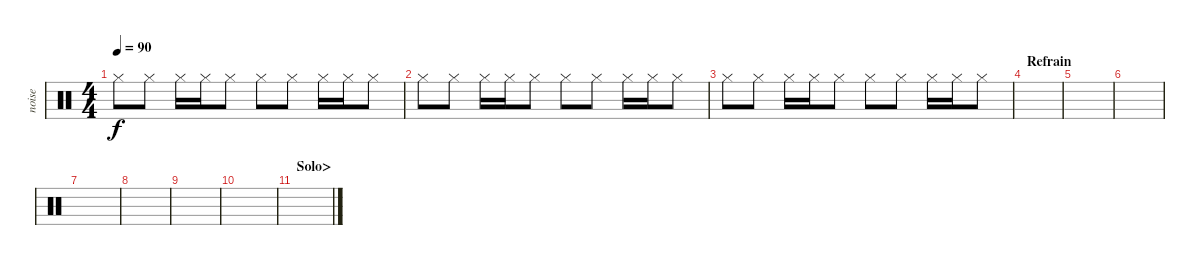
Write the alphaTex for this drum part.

\track ("noise" "noise") {instrument percussion}
\staff {score}
\articulation defaults
\ts (4 4)
\tempo 90
\clef neutral
\ks c "Hi-Hat (closed)".8{dy f} "Hi-Hat (closed)".8 "Hi-Hat (closed)".16 "Hi-Hat (closed)".16 "Hi-Hat (closed)".8 "Hi-Hat (closed)".8 "Hi-Hat (closed)".8 "Hi-Hat (closed)".16 "Hi-Hat (closed)".16 "Hi-Hat (closed)".8
|
"Hi-Hat (closed)".8 "Hi-Hat (closed)".8 "Hi-Hat (closed)".16 "Hi-Hat (closed)".16 "Hi-Hat (closed)".8 "Hi-Hat (closed)".8 "Hi-Hat (closed)".8 "Hi-Hat (closed)".16 "Hi-Hat (closed)".16 "Hi-Hat (closed)".8 |
"Hi-Hat (closed)".8 "Hi-Hat (closed)".8 "Hi-Hat (closed)".16 "Hi-Hat (closed)".16 "Hi-Hat (closed)".8 "Hi-Hat (closed)".8 "Hi-Hat (closed)".8 "Hi-Hat (closed)".16 "Hi-Hat (closed)".16 "Hi-Hat (closed)".8 |
\section ("" "Refrain")
|
|
|
|
|
|
|
\section ("" "Solo>")
